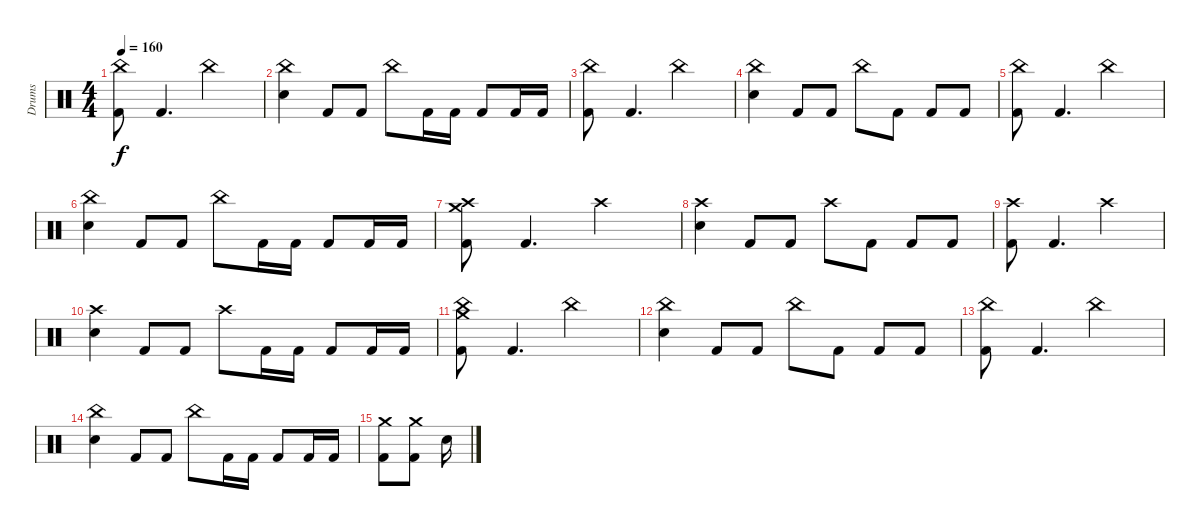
\track ("Drums" "Drums") {instrument percussion}
\staff {score}
\articulation defaults
\ts (4 4)
\tempo 160
\clef neutral
\ks c
("China (hit)" "Kick (hit) 2").8{dy f} "Kick (hit) 2".4{d} "China (hit)".2 |
("China (hit)" "Electric Snare (hit)").4 "Kick (hit) 2".8 "Kick (hit) 2".8 "China (hit)".8 "Kick (hit) 2".16 "Kick (hit) 2".16 "Kick (hit) 2".8 "Kick (hit) 2".16 "Kick (hit) 2".16 |
("China (hit)" "Kick (hit) 2").8 "Kick (hit) 2".4{d} "China (hit)".2 |
("China (hit)" "Electric Snare (hit)").4 "Kick (hit) 2".8 "Kick (hit) 2".8 "China (hit)".8 "Kick (hit) 2".8 "Kick (hit) 2".8 "Kick (hit) 2".8 |
("China (hit)" "Kick (hit) 2").8 "Kick (hit) 2".4{d} "China (hit)".2 |
("China (hit)" "Electric Snare (hit)").4 "Kick (hit) 2".8 "Kick (hit) 2".8 "China (hit)".8 "Kick (hit) 2".16 "Kick (hit) 2".16 "Kick (hit) 2".8 "Kick (hit) 2".16 "Kick (hit) 2".16 |
("Crash medium (hit)" "Crash high (hit)" "Kick (hit) 2").8 "Kick (hit) 2".4{d} "Crash high (hit)".2 |
("Crash high (hit)" "Electric Snare (hit)").4 "Kick (hit) 2".8 "Kick (hit) 2".8 "Crash high (hit)".8 "Kick (hit) 2".8 "Kick (hit) 2".8 "Kick (hit) 2".8 |
("Crash high (hit)" "Kick (hit) 2").8 "Kick (hit) 2".4{d} "Crash high (hit)".2 |
("Crash high (hit)" "Electric Snare (hit)").4 "Kick (hit) 2".8 "Kick (hit) 2".8 "Crash high (hit)".8 "Kick (hit) 2".16 "Kick (hit) 2".16 "Kick (hit) 2".8 "Kick (hit) 2".16 "Kick (hit) 2".16 |
("Crash medium (hit)" "China (hit)" "Kick (hit) 2").8 "Kick (hit) 2".4{d} "China (hit)".2 |
("China (hit)" "Electric Snare (hit)").4 "Kick (hit) 2".8 "Kick (hit) 2".8 "China (hit)".8 "Kick (hit) 2".8 "Kick (hit) 2".8 "Kick (hit) 2".8 |
("China (hit)" "Kick (hit) 2").8 "Kick (hit) 2".4{d} "China (hit)".2 |
("China (hit)" "Electric Snare (hit)").4 "Kick (hit) 2".8 "Kick (hit) 2".8 "China (hit)".8 "Kick (hit) 2".16 "Kick (hit) 2".16 "Kick (hit) 2".8 "Kick (hit) 2".16 "Kick (hit) 2".16 |
("Crash medium (hit)" "Kick (hit) 2").8 ("Crash medium (hit)" "Kick (hit) 2").8 "Snare (hit)".16{volume 0}
